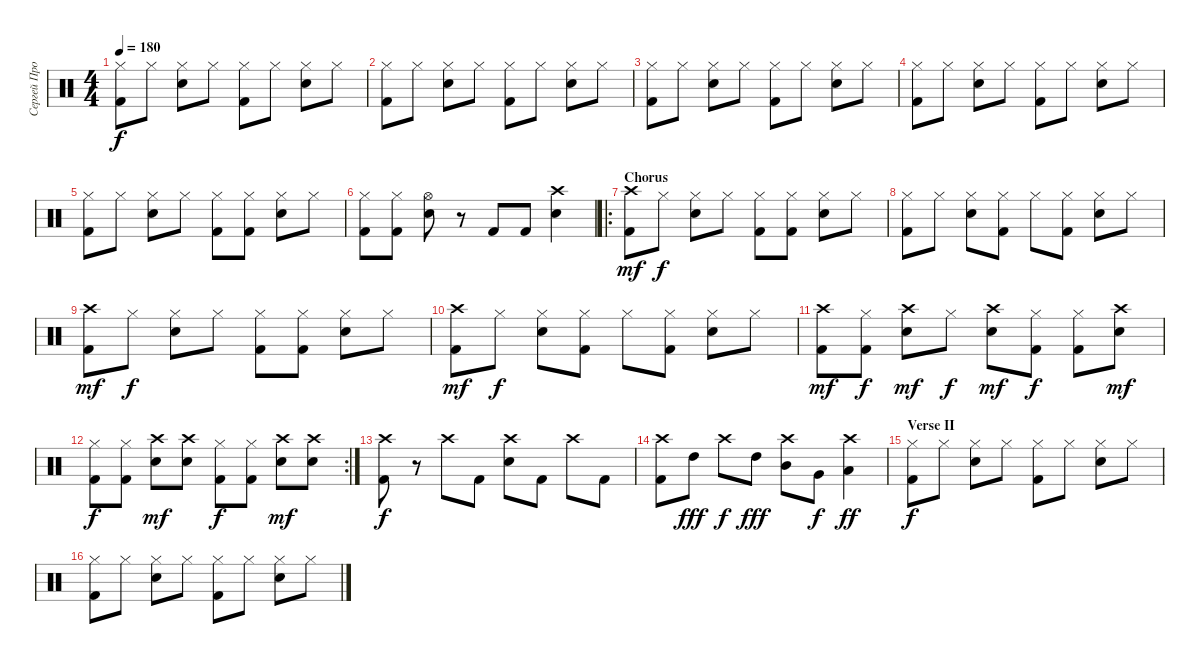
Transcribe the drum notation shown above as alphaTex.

\track ("Сергей Прокофьев" "Сергей Про") {instrument percussion}
\staff {score}
\articulation defaults
\ts (4 4)
\tempo 180
\clef neutral
\ks c
("Hi-Hat (closed)" "Kick (hit) 2").8{dy f} "Hi-Hat (closed)".8 ("Hi-Hat (closed)" "Snare (hit) 2").8 "Hi-Hat (closed)".8 ("Hi-Hat (closed)" "Kick (hit) 2").8 "Hi-Hat (closed)".8 ("Hi-Hat (closed)" "Snare (hit) 2").8 "Hi-Hat (closed)".8 |
("Hi-Hat (closed)" "Kick (hit) 2").8 "Hi-Hat (closed)".8 ("Hi-Hat (closed)" "Snare (hit) 2").8 "Hi-Hat (closed)".8 ("Hi-Hat (closed)" "Kick (hit) 2").8 "Hi-Hat (closed)".8 ("Hi-Hat (closed)" "Snare (hit) 2").8 "Hi-Hat (closed)".8 |
("Hi-Hat (closed)" "Kick (hit) 2").8 "Hi-Hat (closed)".8 ("Hi-Hat (closed)" "Snare (hit) 2").8 "Hi-Hat (closed)".8 ("Hi-Hat (closed)" "Kick (hit) 2").8 "Hi-Hat (closed)".8 ("Hi-Hat (closed)" "Snare (hit) 2").8 "Hi-Hat (closed)".8 |
("Hi-Hat (closed)" "Kick (hit) 2").8 "Hi-Hat (closed)".8 ("Hi-Hat (closed)" "Snare (hit) 2").8 "Hi-Hat (closed)".8 ("Hi-Hat (closed)" "Kick (hit) 2").8 "Hi-Hat (closed)".8 ("Hi-Hat (closed)" "Snare (hit) 2").8 "Hi-Hat (closed)".8 |
("Hi-Hat (closed)" "Kick (hit) 2").8 "Hi-Hat (closed)".8 ("Hi-Hat (closed)" "Snare (hit) 2").8 "Hi-Hat (closed)".8 ("Hi-Hat (closed)" "Kick (hit) 2").8 ("Hi-Hat (closed)" "Kick (hit) 2").8 ("Hi-Hat (closed)" "Snare (hit) 2").8 "Hi-Hat (closed)".8 |
("Hi-Hat (closed)" "Kick (hit) 2").8 ("Hi-Hat (closed)" "Kick (hit) 2").8 ("Hi-Hat (open)" "Snare (hit) 2").8 r.8 "Kick (hit) 2".8 "Kick (hit) 2".8 ("Crash high (hit)" "Snare (hit) 2").4 |
\ro
\section ("" "Chorus")
("Crash high (hit)" "Kick (hit) 2").8{dy mf} "Hi-Hat (closed)".8{dy f} ("Hi-Hat (closed)" "Snare (hit) 2").8 "Hi-Hat (closed)".8 ("Hi-Hat (closed)" "Kick (hit) 2").8 ("Hi-Hat (closed)" "Kick (hit) 2").8 ("Hi-Hat (closed)" "Snare (hit) 2").8 "Hi-Hat (closed)".8 |
("Hi-Hat (closed)" "Kick (hit) 2").8 "Hi-Hat (closed)".8 ("Hi-Hat (closed)" "Snare (hit) 2").8 ("Hi-Hat (closed)" "Kick (hit) 2").8 "Hi-Hat (closed)".8 ("Hi-Hat (closed)" "Kick (hit) 2").8 ("Hi-Hat (closed)" "Snare (hit) 2").8 "Hi-Hat (closed)".8 |
("Crash high (hit)" "Kick (hit) 2").8{dy mf} "Hi-Hat (closed)".8{dy f} ("Hi-Hat (closed)" "Snare (hit) 2").8 "Hi-Hat (closed)".8 ("Hi-Hat (closed)" "Kick (hit) 2").8 ("Hi-Hat (closed)" "Kick (hit) 2").8 ("Hi-Hat (closed)" "Snare (hit) 2").8 "Hi-Hat (closed)".8 |
("Crash high (hit)" "Kick (hit) 2").8{dy mf} "Hi-Hat (closed)".8{dy f} ("Hi-Hat (closed)" "Snare (hit) 2").8 ("Hi-Hat (closed)" "Kick (hit) 2").8 "Hi-Hat (closed)".8 ("Hi-Hat (closed)" "Kick (hit) 2").8 ("Hi-Hat (closed)" "Snare (hit) 2").8 "Hi-Hat (closed)".8 |
("Crash high (hit)" "Kick (hit) 2").8{dy mf} ("Hi-Hat (closed)" "Kick (hit) 2").8{dy f} ("Crash high (hit)" "Snare (hit) 2").8{dy mf} "Hi-Hat (closed)".8{dy f} ("Crash high (hit)" "Snare (hit) 2").8{dy mf} ("Hi-Hat (closed)" "Kick (hit) 2").8{dy f} ("Hi-Hat (closed)" "Kick (hit) 2").8 ("Crash high (hit)" "Snare (hit) 2").8{dy mf} |
\rc 2
("Hi-Hat (closed)" "Kick (hit) 2").8{dy f} ("Hi-Hat (closed)" "Kick (hit) 2").8 ("Crash high (hit)" "Snare (hit) 2").8{dy mf} ("Crash high (hit)" "Snare (hit) 2").8 ("Hi-Hat (closed)" "Kick (hit) 2").8{dy f} ("Hi-Hat (closed)" "Kick (hit) 2").8 ("Crash high (hit)" "Snare (hit) 2").8{dy mf} ("Crash high (hit)" "Snare (hit) 2").8 |
("Crash high (hit)" "Kick (hit) 2").8{dy f} r.8 "Crash high (hit)".8 "Kick (hit) 2".8 ("Crash high (hit)" "Snare (hit) 2").8 "Kick (hit) 2".8 "Crash high (hit)".8 "Kick (hit) 2".8 |
("Crash high (hit)" "Kick (hit) 2").8 "High Tom (hit)".8{dy fff} "Crash high (hit)".8{dy f} "High Tom (hit)".8{dy fff} ("Crash high (hit)" "Mid Tom (hit)").8 "Very Low Tom (hit)".8{dy f} ("Crash high (hit)" "Low Floor Tom (hit)").4{dy ff} |
\section ("" "Verse II")
("Hi-Hat (closed)" "Kick (hit) 2").8{dy f} "Hi-Hat (closed)".8 ("Hi-Hat (closed)" "Snare (hit) 2").8 "Hi-Hat (closed)".8 ("Hi-Hat (closed)" "Kick (hit) 2").8 "Hi-Hat (closed)".8 ("Hi-Hat (closed)" "Snare (hit) 2").8 "Hi-Hat (closed)".8 |
("Hi-Hat (closed)" "Kick (hit) 2").8 "Hi-Hat (closed)".8 ("Hi-Hat (closed)" "Snare (hit) 2").8 "Hi-Hat (closed)".8 ("Hi-Hat (closed)" "Kick (hit) 2").8 "Hi-Hat (closed)".8 ("Hi-Hat (closed)" "Snare (hit) 2").8 "Hi-Hat (closed)".8
